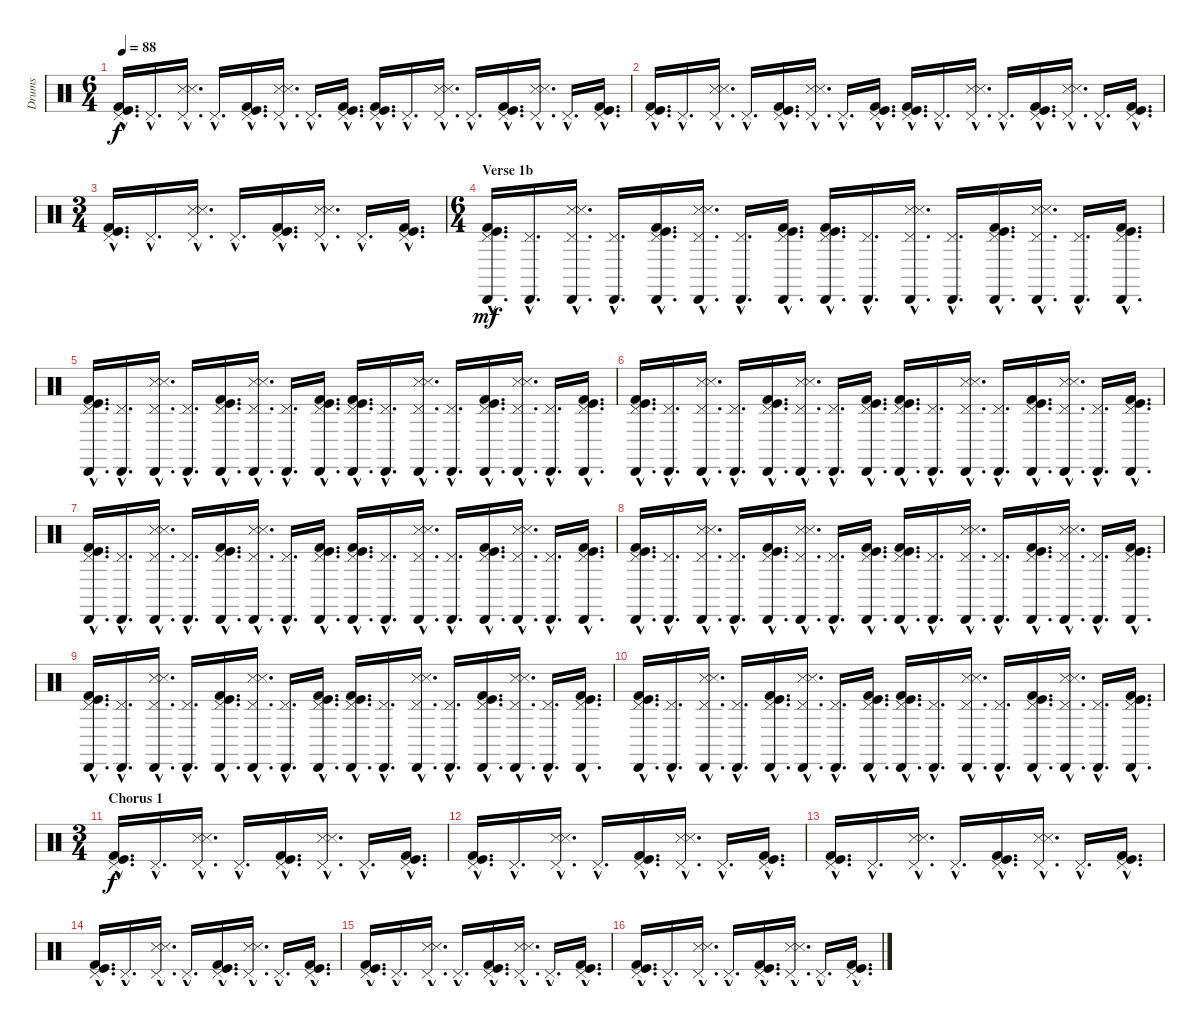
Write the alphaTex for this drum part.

\track ("Drums" "Drums") {instrument percussion}
\staff {score}
\articulation defaults
\ts (6 4)
\tempo 88
\clef neutral
\ks c
("Pedal Hi-Hat (hit)"{hac} "Kick (hit)"{hac} "Kick (hit) 2"{hac}).16{d dy f} "Pedal Hi-Hat (hit)"{hac}.16{d} ("Pedal Hi-Hat (hit)"{hac} "Snare (side stick) 3"{hac} "Snare (side stick) 3"{hac}).16{d} "Pedal Hi-Hat (hit)"{hac}.16{d} ("Pedal Hi-Hat (hit)"{hac} "Kick (hit)"{hac} "Kick (hit) 2"{hac}).16{d} ("Pedal Hi-Hat (hit)"{hac} "Snare (side stick) 3"{hac} "Snare (side stick) 3"{hac}).16{d} "Pedal Hi-Hat (hit)"{hac}.16{d} ("Pedal Hi-Hat (hit)"{hac} "Kick (hit)"{hac} "Kick (hit) 2"{hac}).16{d} ("Pedal Hi-Hat (hit)"{hac} "Kick (hit)"{hac} "Kick (hit) 2"{hac}).16{d} "Pedal Hi-Hat (hit)"{hac}.16{d} ("Pedal Hi-Hat (hit)"{hac} "Snare (side stick) 3"{hac} "Snare (side stick) 3"{hac}).16{d} "Pedal Hi-Hat (hit)"{hac}.16{d} ("Pedal Hi-Hat (hit)"{hac} "Kick (hit)"{hac} "Kick (hit) 2"{hac}).16{d} ("Pedal Hi-Hat (hit)"{hac} "Snare (side stick) 3"{hac} "Snare (side stick) 3"{hac}).16{d} "Pedal Hi-Hat (hit)"{hac}.16{d} ("Pedal Hi-Hat (hit)"{hac} "Kick (hit)"{hac} "Kick (hit) 2"{hac}).16{d} |
("Pedal Hi-Hat (hit)"{hac} "Kick (hit)"{hac} "Kick (hit) 2"{hac}).16{d} "Pedal Hi-Hat (hit)"{hac}.16{d} ("Pedal Hi-Hat (hit)"{hac} "Snare (side stick) 3"{hac} "Snare (side stick) 3"{hac}).16{d} "Pedal Hi-Hat (hit)"{hac}.16{d} ("Pedal Hi-Hat (hit)"{hac} "Kick (hit)"{hac} "Kick (hit) 2"{hac}).16{d} ("Pedal Hi-Hat (hit)"{hac} "Snare (side stick) 3"{hac} "Snare (side stick) 3"{hac}).16{d} "Pedal Hi-Hat (hit)"{hac}.16{d} ("Pedal Hi-Hat (hit)"{hac} "Kick (hit)"{hac} "Kick (hit) 2"{hac}).16{d} ("Pedal Hi-Hat (hit)"{hac} "Kick (hit)"{hac} "Kick (hit) 2"{hac}).16{d} "Pedal Hi-Hat (hit)"{hac}.16{d} ("Pedal Hi-Hat (hit)"{hac} "Snare (side stick) 3"{hac} "Snare (side stick) 3"{hac}).16{d} "Pedal Hi-Hat (hit)"{hac}.16{d} ("Pedal Hi-Hat (hit)"{hac} "Kick (hit)"{hac} "Kick (hit) 2"{hac}).16{d} ("Pedal Hi-Hat (hit)"{hac} "Snare (side stick) 3"{hac} "Snare (side stick) 3"{hac}).16{d} "Pedal Hi-Hat (hit)"{hac}.16{d} ("Pedal Hi-Hat (hit)"{hac} "Kick (hit)"{hac} "Kick (hit) 2"{hac}).16{d} |
\ts (3 4)
("Pedal Hi-Hat (hit)"{hac} "Kick (hit)"{hac} "Kick (hit) 2"{hac}).16{d} "Pedal Hi-Hat (hit)"{hac}.16{d} ("Pedal Hi-Hat (hit)"{hac} "Snare (side stick) 3"{hac} "Snare (side stick) 3"{hac}).16{d} "Pedal Hi-Hat (hit)"{hac}.16{d} ("Pedal Hi-Hat (hit)"{hac} "Kick (hit)"{hac} "Kick (hit) 2"{hac}).16{d} ("Pedal Hi-Hat (hit)"{hac} "Snare (side stick) 3"{hac} "Snare (side stick) 3"{hac}).16{d} "Pedal Hi-Hat (hit)"{hac}.16{d} ("Pedal Hi-Hat (hit)"{hac} "Kick (hit)"{hac} "Kick (hit) 2"{hac}).16{d} |
\ts (6 4)
\section ("" "Verse 1b")
("Pedal Hi-Hat (hit)"{hac} "Cabasa (hit)"{hac} "Kick (hit)"{hac} "Kick (hit) 2"{hac}).16{d dy mf} ("Pedal Hi-Hat (hit)"{hac} "Cabasa (hit)"{hac}).16{d} ("Pedal Hi-Hat (hit)"{hac} "Cabasa (hit)"{hac} "Snare (side stick) 3"{hac} "Snare (side stick) 3"{hac}).16{d} ("Pedal Hi-Hat (hit)"{hac} "Cabasa (hit)"{hac}).16{d} ("Pedal Hi-Hat (hit)"{hac} "Cabasa (hit)"{hac} "Kick (hit)"{hac} "Kick (hit) 2"{hac}).16{d} ("Pedal Hi-Hat (hit)"{hac} "Cabasa (hit)"{hac} "Snare (side stick) 3"{hac} "Snare (side stick) 3"{hac}).16{d} ("Pedal Hi-Hat (hit)"{hac} "Cabasa (hit)"{hac}).16{d} ("Pedal Hi-Hat (hit)"{hac} "Cabasa (hit)"{hac} "Kick (hit)"{hac} "Kick (hit) 2"{hac}).16{d} ("Pedal Hi-Hat (hit)"{hac} "Cabasa (hit)"{hac} "Kick (hit)"{hac} "Kick (hit) 2"{hac}).16{d} ("Pedal Hi-Hat (hit)"{hac} "Cabasa (hit)"{hac}).16{d} ("Pedal Hi-Hat (hit)"{hac} "Cabasa (hit)"{hac} "Snare (side stick) 3"{hac} "Snare (side stick) 3"{hac}).16{d} ("Pedal Hi-Hat (hit)"{hac} "Cabasa (hit)"{hac}).16{d} ("Pedal Hi-Hat (hit)"{hac} "Cabasa (hit)"{hac} "Kick (hit)"{hac} "Kick (hit) 2"{hac}).16{d} ("Pedal Hi-Hat (hit)"{hac} "Cabasa (hit)"{hac} "Snare (side stick) 3"{hac} "Snare (side stick) 3"{hac}).16{d} ("Pedal Hi-Hat (hit)"{hac} "Cabasa (hit)"{hac}).16{d} ("Pedal Hi-Hat (hit)"{hac} "Cabasa (hit)"{hac} "Kick (hit)"{hac} "Kick (hit) 2"{hac}).16{d} |
("Pedal Hi-Hat (hit)"{hac} "Cabasa (hit)"{hac} "Kick (hit)"{hac} "Kick (hit) 2"{hac}).16{d} ("Pedal Hi-Hat (hit)"{hac} "Cabasa (hit)"{hac}).16{d} ("Pedal Hi-Hat (hit)"{hac} "Cabasa (hit)"{hac} "Snare (side stick) 3"{hac} "Snare (side stick) 3"{hac}).16{d} ("Pedal Hi-Hat (hit)"{hac} "Cabasa (hit)"{hac}).16{d} ("Pedal Hi-Hat (hit)"{hac} "Cabasa (hit)"{hac} "Kick (hit)"{hac} "Kick (hit) 2"{hac}).16{d} ("Pedal Hi-Hat (hit)"{hac} "Cabasa (hit)"{hac} "Snare (side stick) 3"{hac} "Snare (side stick) 3"{hac}).16{d} ("Pedal Hi-Hat (hit)"{hac} "Cabasa (hit)"{hac}).16{d} ("Pedal Hi-Hat (hit)"{hac} "Cabasa (hit)"{hac} "Kick (hit)"{hac} "Kick (hit) 2"{hac}).16{d} ("Pedal Hi-Hat (hit)"{hac} "Cabasa (hit)"{hac} "Kick (hit)"{hac} "Kick (hit) 2"{hac}).16{d} ("Pedal Hi-Hat (hit)"{hac} "Cabasa (hit)"{hac}).16{d} ("Pedal Hi-Hat (hit)"{hac} "Cabasa (hit)"{hac} "Snare (side stick) 3"{hac} "Snare (side stick) 3"{hac}).16{d} ("Pedal Hi-Hat (hit)"{hac} "Cabasa (hit)"{hac}).16{d} ("Pedal Hi-Hat (hit)"{hac} "Cabasa (hit)"{hac} "Kick (hit)"{hac} "Kick (hit) 2"{hac}).16{d} ("Pedal Hi-Hat (hit)"{hac} "Cabasa (hit)"{hac} "Snare (side stick) 3"{hac} "Snare (side stick) 3"{hac}).16{d} ("Pedal Hi-Hat (hit)"{hac} "Cabasa (hit)"{hac}).16{d} ("Pedal Hi-Hat (hit)"{hac} "Cabasa (hit)"{hac} "Kick (hit)"{hac} "Kick (hit) 2"{hac}).16{d} |
("Pedal Hi-Hat (hit)"{hac} "Cabasa (hit)"{hac} "Kick (hit)"{hac} "Kick (hit) 2"{hac}).16{d} ("Pedal Hi-Hat (hit)"{hac} "Cabasa (hit)"{hac}).16{d} ("Pedal Hi-Hat (hit)"{hac} "Cabasa (hit)"{hac} "Snare (side stick) 3"{hac} "Snare (side stick) 3"{hac}).16{d} ("Pedal Hi-Hat (hit)"{hac} "Cabasa (hit)"{hac}).16{d} ("Pedal Hi-Hat (hit)"{hac} "Cabasa (hit)"{hac} "Kick (hit)"{hac} "Kick (hit) 2"{hac}).16{d} ("Pedal Hi-Hat (hit)"{hac} "Cabasa (hit)"{hac} "Snare (side stick) 3"{hac} "Snare (side stick) 3"{hac}).16{d} ("Pedal Hi-Hat (hit)"{hac} "Cabasa (hit)"{hac}).16{d} ("Pedal Hi-Hat (hit)"{hac} "Cabasa (hit)"{hac} "Kick (hit)"{hac} "Kick (hit) 2"{hac}).16{d} ("Pedal Hi-Hat (hit)"{hac} "Cabasa (hit)"{hac} "Kick (hit)"{hac} "Kick (hit) 2"{hac}).16{d} ("Pedal Hi-Hat (hit)"{hac} "Cabasa (hit)"{hac}).16{d} ("Pedal Hi-Hat (hit)"{hac} "Cabasa (hit)"{hac} "Snare (side stick) 3"{hac} "Snare (side stick) 3"{hac}).16{d} ("Pedal Hi-Hat (hit)"{hac} "Cabasa (hit)"{hac}).16{d} ("Pedal Hi-Hat (hit)"{hac} "Cabasa (hit)"{hac} "Kick (hit)"{hac} "Kick (hit) 2"{hac}).16{d} ("Pedal Hi-Hat (hit)"{hac} "Cabasa (hit)"{hac} "Snare (side stick) 3"{hac} "Snare (side stick) 3"{hac}).16{d} ("Pedal Hi-Hat (hit)"{hac} "Cabasa (hit)"{hac}).16{d} ("Pedal Hi-Hat (hit)"{hac} "Cabasa (hit)"{hac} "Kick (hit)"{hac} "Kick (hit) 2"{hac}).16{d} |
("Pedal Hi-Hat (hit)"{hac} "Cabasa (hit)"{hac} "Kick (hit)"{hac} "Kick (hit) 2"{hac}).16{d} ("Pedal Hi-Hat (hit)"{hac} "Cabasa (hit)"{hac}).16{d} ("Pedal Hi-Hat (hit)"{hac} "Cabasa (hit)"{hac} "Snare (side stick) 3"{hac} "Snare (side stick) 3"{hac}).16{d} ("Pedal Hi-Hat (hit)"{hac} "Cabasa (hit)"{hac}).16{d} ("Pedal Hi-Hat (hit)"{hac} "Cabasa (hit)"{hac} "Kick (hit)"{hac} "Kick (hit) 2"{hac}).16{d} ("Pedal Hi-Hat (hit)"{hac} "Cabasa (hit)"{hac} "Snare (side stick) 3"{hac} "Snare (side stick) 3"{hac}).16{d} ("Pedal Hi-Hat (hit)"{hac} "Cabasa (hit)"{hac}).16{d} ("Pedal Hi-Hat (hit)"{hac} "Cabasa (hit)"{hac} "Kick (hit)"{hac} "Kick (hit) 2"{hac}).16{d} ("Pedal Hi-Hat (hit)"{hac} "Cabasa (hit)"{hac} "Kick (hit)"{hac} "Kick (hit) 2"{hac}).16{d} ("Pedal Hi-Hat (hit)"{hac} "Cabasa (hit)"{hac}).16{d} ("Pedal Hi-Hat (hit)"{hac} "Cabasa (hit)"{hac} "Snare (side stick) 3"{hac} "Snare (side stick) 3"{hac}).16{d} ("Pedal Hi-Hat (hit)"{hac} "Cabasa (hit)"{hac}).16{d} ("Pedal Hi-Hat (hit)"{hac} "Cabasa (hit)"{hac} "Kick (hit)"{hac} "Kick (hit) 2"{hac}).16{d} ("Pedal Hi-Hat (hit)"{hac} "Cabasa (hit)"{hac} "Snare (side stick) 3"{hac} "Snare (side stick) 3"{hac}).16{d} ("Pedal Hi-Hat (hit)"{hac} "Cabasa (hit)"{hac}).16{d} ("Pedal Hi-Hat (hit)"{hac} "Cabasa (hit)"{hac} "Kick (hit)"{hac} "Kick (hit) 2"{hac}).16{d} |
("Pedal Hi-Hat (hit)"{hac} "Cabasa (hit)"{hac} "Kick (hit)"{hac} "Kick (hit) 2"{hac}).16{d} ("Pedal Hi-Hat (hit)"{hac} "Cabasa (hit)"{hac}).16{d} ("Pedal Hi-Hat (hit)"{hac} "Cabasa (hit)"{hac} "Snare (side stick) 3"{hac} "Snare (side stick) 3"{hac}).16{d} ("Pedal Hi-Hat (hit)"{hac} "Cabasa (hit)"{hac}).16{d} ("Pedal Hi-Hat (hit)"{hac} "Cabasa (hit)"{hac} "Kick (hit)"{hac} "Kick (hit) 2"{hac}).16{d} ("Pedal Hi-Hat (hit)"{hac} "Cabasa (hit)"{hac} "Snare (side stick) 3"{hac} "Snare (side stick) 3"{hac}).16{d} ("Pedal Hi-Hat (hit)"{hac} "Cabasa (hit)"{hac}).16{d} ("Pedal Hi-Hat (hit)"{hac} "Cabasa (hit)"{hac} "Kick (hit)"{hac} "Kick (hit) 2"{hac}).16{d} ("Pedal Hi-Hat (hit)"{hac} "Cabasa (hit)"{hac} "Kick (hit)"{hac} "Kick (hit) 2"{hac}).16{d} ("Pedal Hi-Hat (hit)"{hac} "Cabasa (hit)"{hac}).16{d} ("Pedal Hi-Hat (hit)"{hac} "Cabasa (hit)"{hac} "Snare (side stick) 3"{hac} "Snare (side stick) 3"{hac}).16{d} ("Pedal Hi-Hat (hit)"{hac} "Cabasa (hit)"{hac}).16{d} ("Pedal Hi-Hat (hit)"{hac} "Cabasa (hit)"{hac} "Kick (hit)"{hac} "Kick (hit) 2"{hac}).16{d} ("Pedal Hi-Hat (hit)"{hac} "Cabasa (hit)"{hac} "Snare (side stick) 3"{hac} "Snare (side stick) 3"{hac}).16{d} ("Pedal Hi-Hat (hit)"{hac} "Cabasa (hit)"{hac}).16{d} ("Pedal Hi-Hat (hit)"{hac} "Cabasa (hit)"{hac} "Kick (hit)"{hac} "Kick (hit) 2"{hac}).16{d} |
("Pedal Hi-Hat (hit)"{hac} "Cabasa (hit)"{hac} "Kick (hit)"{hac} "Kick (hit) 2"{hac}).16{d} ("Pedal Hi-Hat (hit)"{hac} "Cabasa (hit)"{hac}).16{d} ("Pedal Hi-Hat (hit)"{hac} "Cabasa (hit)"{hac} "Snare (side stick) 3"{hac} "Snare (side stick) 3"{hac}).16{d} ("Pedal Hi-Hat (hit)"{hac} "Cabasa (hit)"{hac}).16{d} ("Pedal Hi-Hat (hit)"{hac} "Cabasa (hit)"{hac} "Kick (hit)"{hac} "Kick (hit) 2"{hac}).16{d} ("Pedal Hi-Hat (hit)"{hac} "Cabasa (hit)"{hac} "Snare (side stick) 3"{hac} "Snare (side stick) 3"{hac}).16{d} ("Pedal Hi-Hat (hit)"{hac} "Cabasa (hit)"{hac}).16{d} ("Pedal Hi-Hat (hit)"{hac} "Cabasa (hit)"{hac} "Kick (hit)"{hac} "Kick (hit) 2"{hac}).16{d} ("Pedal Hi-Hat (hit)"{hac} "Cabasa (hit)"{hac} "Kick (hit)"{hac} "Kick (hit) 2"{hac}).16{d} ("Pedal Hi-Hat (hit)"{hac} "Cabasa (hit)"{hac}).16{d} ("Pedal Hi-Hat (hit)"{hac} "Cabasa (hit)"{hac} "Snare (side stick) 3"{hac} "Snare (side stick) 3"{hac}).16{d} ("Pedal Hi-Hat (hit)"{hac} "Cabasa (hit)"{hac}).16{d} ("Pedal Hi-Hat (hit)"{hac} "Cabasa (hit)"{hac} "Kick (hit)"{hac} "Kick (hit) 2"{hac}).16{d} ("Pedal Hi-Hat (hit)"{hac} "Cabasa (hit)"{hac} "Snare (side stick) 3"{hac} "Snare (side stick) 3"{hac}).16{d} ("Pedal Hi-Hat (hit)"{hac} "Cabasa (hit)"{hac}).16{d} ("Pedal Hi-Hat (hit)"{hac} "Cabasa (hit)"{hac} "Kick (hit)"{hac} "Kick (hit) 2"{hac}).16{d} |
("Pedal Hi-Hat (hit)"{hac} "Cabasa (hit)"{hac} "Kick (hit)"{hac} "Kick (hit) 2"{hac}).16{d} ("Pedal Hi-Hat (hit)"{hac} "Cabasa (hit)"{hac}).16{d} ("Pedal Hi-Hat (hit)"{hac} "Cabasa (hit)"{hac} "Snare (side stick) 3"{hac} "Snare (side stick) 3"{hac}).16{d} ("Pedal Hi-Hat (hit)"{hac} "Cabasa (hit)"{hac}).16{d} ("Pedal Hi-Hat (hit)"{hac} "Cabasa (hit)"{hac} "Kick (hit)"{hac} "Kick (hit) 2"{hac}).16{d} ("Pedal Hi-Hat (hit)"{hac} "Cabasa (hit)"{hac} "Snare (side stick) 3"{hac} "Snare (side stick) 3"{hac}).16{d} ("Pedal Hi-Hat (hit)"{hac} "Cabasa (hit)"{hac}).16{d} ("Pedal Hi-Hat (hit)"{hac} "Cabasa (hit)"{hac} "Kick (hit)"{hac} "Kick (hit) 2"{hac}).16{d} ("Pedal Hi-Hat (hit)"{hac} "Cabasa (hit)"{hac} "Kick (hit)"{hac} "Kick (hit) 2"{hac}).16{d} ("Pedal Hi-Hat (hit)"{hac} "Cabasa (hit)"{hac}).16{d} ("Pedal Hi-Hat (hit)"{hac} "Cabasa (hit)"{hac} "Snare (side stick) 3"{hac} "Snare (side stick) 3"{hac}).16{d} ("Pedal Hi-Hat (hit)"{hac} "Cabasa (hit)"{hac}).16{d} ("Pedal Hi-Hat (hit)"{hac} "Cabasa (hit)"{hac} "Kick (hit)"{hac} "Kick (hit) 2"{hac}).16{d} ("Pedal Hi-Hat (hit)"{hac} "Cabasa (hit)"{hac} "Snare (side stick) 3"{hac} "Snare (side stick) 3"{hac}).16{d} ("Pedal Hi-Hat (hit)"{hac} "Cabasa (hit)"{hac}).16{d} ("Pedal Hi-Hat (hit)"{hac} "Cabasa (hit)"{hac} "Kick (hit)"{hac} "Kick (hit) 2"{hac}).16{d} |
\ts (3 4)
\section ("" "Chorus 1")
("Pedal Hi-Hat (hit)"{hac} "Kick (hit)"{hac} "Kick (hit) 2"{hac}).16{d dy f} "Pedal Hi-Hat (hit)"{hac}.16{d} ("Pedal Hi-Hat (hit)"{hac} "Snare (side stick) 3"{hac} "Snare (side stick) 3"{hac}).16{d} "Pedal Hi-Hat (hit)"{hac}.16{d} ("Pedal Hi-Hat (hit)"{hac} "Kick (hit)"{hac} "Kick (hit) 2"{hac}).16{d} ("Pedal Hi-Hat (hit)"{hac} "Snare (side stick) 3"{hac} "Snare (side stick) 3"{hac}).16{d} "Pedal Hi-Hat (hit)"{hac}.16{d} ("Pedal Hi-Hat (hit)"{hac} "Kick (hit)"{hac} "Kick (hit) 2"{hac}).16{d} |
("Pedal Hi-Hat (hit)"{hac} "Kick (hit)"{hac} "Kick (hit) 2"{hac}).16{d} "Pedal Hi-Hat (hit)"{hac}.16{d} ("Pedal Hi-Hat (hit)"{hac} "Snare (side stick) 3"{hac} "Snare (side stick) 3"{hac}).16{d} "Pedal Hi-Hat (hit)"{hac}.16{d} ("Pedal Hi-Hat (hit)"{hac} "Kick (hit)"{hac} "Kick (hit) 2"{hac}).16{d} ("Pedal Hi-Hat (hit)"{hac} "Snare (side stick) 3"{hac} "Snare (side stick) 3"{hac}).16{d} "Pedal Hi-Hat (hit)"{hac}.16{d} ("Pedal Hi-Hat (hit)"{hac} "Kick (hit)"{hac} "Kick (hit) 2"{hac}).16{d} |
("Pedal Hi-Hat (hit)"{hac} "Kick (hit)"{hac} "Kick (hit) 2"{hac}).16{d} "Pedal Hi-Hat (hit)"{hac}.16{d} ("Pedal Hi-Hat (hit)"{hac} "Snare (side stick) 3"{hac} "Snare (side stick) 3"{hac}).16{d} "Pedal Hi-Hat (hit)"{hac}.16{d} ("Pedal Hi-Hat (hit)"{hac} "Kick (hit)"{hac} "Kick (hit) 2"{hac}).16{d} ("Pedal Hi-Hat (hit)"{hac} "Snare (side stick) 3"{hac} "Snare (side stick) 3"{hac}).16{d} "Pedal Hi-Hat (hit)"{hac}.16{d} ("Pedal Hi-Hat (hit)"{hac} "Kick (hit)"{hac} "Kick (hit) 2"{hac}).16{d} |
("Pedal Hi-Hat (hit)"{hac} "Kick (hit)"{hac} "Kick (hit) 2"{hac}).16{d} "Pedal Hi-Hat (hit)"{hac}.16{d} ("Pedal Hi-Hat (hit)"{hac} "Snare (side stick) 3"{hac} "Snare (side stick) 3"{hac}).16{d} "Pedal Hi-Hat (hit)"{hac}.16{d} ("Pedal Hi-Hat (hit)"{hac} "Kick (hit)"{hac} "Kick (hit) 2"{hac}).16{d} ("Pedal Hi-Hat (hit)"{hac} "Snare (side stick) 3"{hac} "Snare (side stick) 3"{hac}).16{d} "Pedal Hi-Hat (hit)"{hac}.16{d} ("Pedal Hi-Hat (hit)"{hac} "Kick (hit)"{hac} "Kick (hit) 2"{hac}).16{d} |
("Pedal Hi-Hat (hit)"{hac} "Kick (hit)"{hac} "Kick (hit) 2"{hac}).16{d} "Pedal Hi-Hat (hit)"{hac}.16{d} ("Pedal Hi-Hat (hit)"{hac} "Snare (side stick) 3"{hac} "Snare (side stick) 3"{hac}).16{d} "Pedal Hi-Hat (hit)"{hac}.16{d} ("Pedal Hi-Hat (hit)"{hac} "Kick (hit)"{hac} "Kick (hit) 2"{hac}).16{d} ("Pedal Hi-Hat (hit)"{hac} "Snare (side stick) 3"{hac} "Snare (side stick) 3"{hac}).16{d} "Pedal Hi-Hat (hit)"{hac}.16{d} ("Pedal Hi-Hat (hit)"{hac} "Kick (hit)"{hac} "Kick (hit) 2"{hac}).16{d} |
("Pedal Hi-Hat (hit)"{hac} "Kick (hit)"{hac} "Kick (hit) 2"{hac}).16{d} "Pedal Hi-Hat (hit)"{hac}.16{d} ("Pedal Hi-Hat (hit)"{hac} "Snare (side stick) 3"{hac} "Snare (side stick) 3"{hac}).16{d} "Pedal Hi-Hat (hit)"{hac}.16{d} ("Pedal Hi-Hat (hit)"{hac} "Kick (hit)"{hac} "Kick (hit) 2"{hac}).16{d} ("Pedal Hi-Hat (hit)"{hac} "Snare (side stick) 3"{hac} "Snare (side stick) 3"{hac}).16{d} "Pedal Hi-Hat (hit)"{hac}.16{d} ("Pedal Hi-Hat (hit)"{hac} "Kick (hit)"{hac} "Kick (hit) 2"{hac}).16{d}
